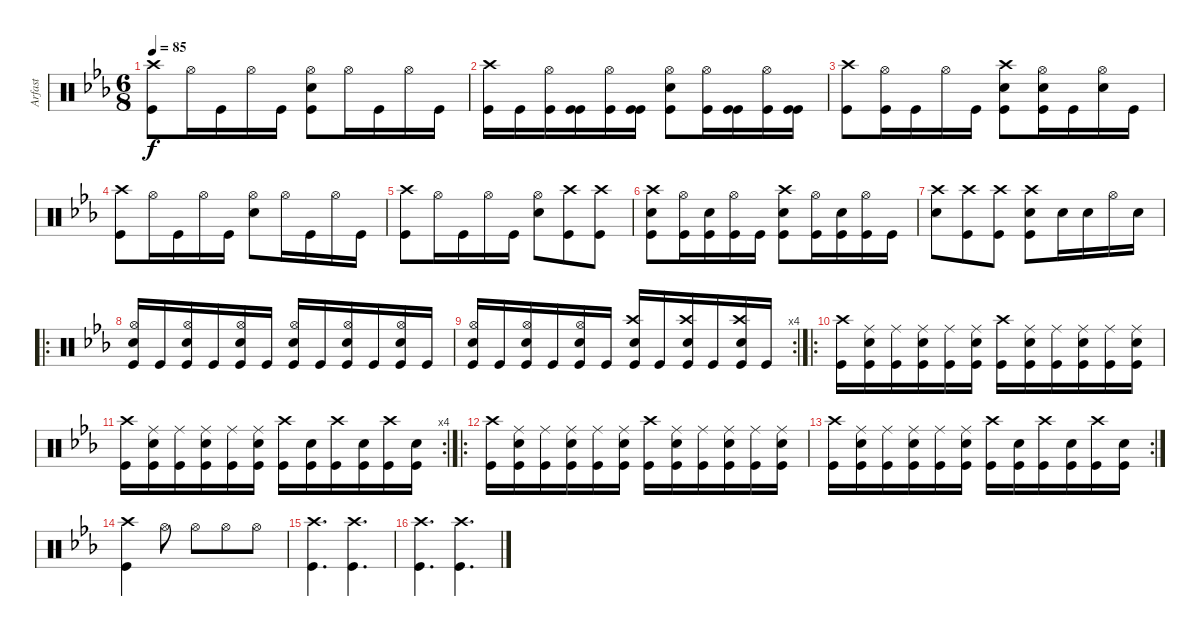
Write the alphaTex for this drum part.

\track ("Arfast" "Arfast") {instrument percussion}
\staff {score}
\articulation defaults
\ts (6 8)
\tempo 85
\clef neutral
\ks cminor
("Kick (hit)" "Crash high (hit)").8{dy f} "Hi-Hat (open)".16 "Kick (hit)".16 "Hi-Hat (open)".16 "Kick (hit)".16 ("Snare (hit) 2" "Kick (hit)" "Hi-Hat (open)").8 "Hi-Hat (open)".16 "Kick (hit)".16 "Hi-Hat (open)".16 "Kick (hit)".16 |
("Kick (hit)" "Crash high (hit)").16 "Kick (hit)".16 ("Hi-Hat (open)" "Kick (hit)").16 ("Kick (hit)" "Kick (hit)").16 ("Hi-Hat (open)" "Kick (hit)").16 ("Kick (hit)" "Kick (hit)").16 ("Snare (hit) 2" "Hi-Hat (open)" "Kick (hit)").8 ("Hi-Hat (open)" "Kick (hit)").16 ("Kick (hit)" "Kick (hit)").16 ("Hi-Hat (open)" "Kick (hit)").16 ("Kick (hit)" "Kick (hit)").16 |
("Kick (hit)" "Crash high (hit)").8 ("Kick (hit)" "Hi-Hat (open)").16 "Kick (hit)".16 "Hi-Hat (open)".16 "Kick (hit)".16 ("Kick (hit)" "Crash high (hit)" "Snare (hit) 2").8 ("Kick (hit)" "Hi-Hat (open)" "Snare (hit) 2").16 "Kick (hit)".16 ("Hi-Hat (open)" "Snare (hit) 2").16 "Kick (hit)".16 |
("Kick (hit)" "Crash high (hit)").8 "Hi-Hat (open)".16 "Kick (hit)".16 "Hi-Hat (open)".16 "Kick (hit)".16 ("Snare (hit) 2" "Hi-Hat (open)").8 "Hi-Hat (open)".16 "Kick (hit)".16 "Hi-Hat (open)".16 "Kick (hit)".16 |
("Kick (hit)" "Crash high (hit)").8 "Hi-Hat (open)".16 "Kick (hit)".16 "Hi-Hat (open)".16 "Kick (hit)".16 ("Snare (hit) 2" "Hi-Hat (open)").8 ("Crash high (hit)" "Kick (hit)").8 ("Crash high (hit)" "Kick (hit)").8 |
("Kick (hit)" "Crash high (hit)" "Snare (hit) 2").8 ("Hi-Hat (open)" "Kick (hit)").16 ("Kick (hit)" "Snare (hit) 2").16 ("Hi-Hat (open)" "Kick (hit)").16 "Kick (hit)".16 ("Kick (hit)" "Crash high (hit)" "Snare (hit) 2").8 ("Hi-Hat (open)" "Kick (hit)").16 ("Kick (hit)" "Snare (hit) 2").16 ("Hi-Hat (open)" "Kick (hit)").16 "Kick (hit)".16 |
("Crash high (hit)" "Snare (hit) 2").8 ("Crash high (hit)" "Kick (hit)").8 ("Crash high (hit)" "Kick (hit)").8 ("Crash high (hit)" "Kick (hit)" "Snare (hit) 2").8 "Snare (hit) 2".16 "Snare (hit) 2".16 "Hi-Hat (open)".16 "Snare (hit) 2".16 |
\ro
("Snare (hit) 2" "Hi-Hat (open)" "Kick (hit)").16 "Kick (hit)".16 ("Snare (hit) 2" "Hi-Hat (open)" "Kick (hit)").16 "Kick (hit)".16 ("Snare (hit) 2" "Hi-Hat (open)" "Kick (hit)").16 "Kick (hit)".16 ("Snare (hit) 2" "Hi-Hat (open)" "Kick (hit)").16 "Kick (hit)".16 ("Snare (hit) 2" "Hi-Hat (open)" "Kick (hit)").16 "Kick (hit)".16 ("Snare (hit) 2" "Hi-Hat (open)" "Kick (hit)").16 "Kick (hit)".16 |
\rc 4
("Snare (hit) 2" "Hi-Hat (open)" "Kick (hit)").16 "Kick (hit)".16 ("Snare (hit) 2" "Hi-Hat (open)" "Kick (hit)").16 "Kick (hit)".16 ("Snare (hit) 2" "Hi-Hat (open)" "Kick (hit)").16 "Kick (hit)".16 ("Crash high (hit)" "Snare (hit) 2" "Kick (hit)").16 "Kick (hit)".16 ("Crash high (hit)" "Snare (hit) 2" "Kick (hit)").16 "Kick (hit)".16 ("Crash high (hit)" "Snare (hit) 2" "Kick (hit)").16 "Kick (hit)".16 |
\ro
("Crash high (hit)" "Kick (hit)").16 ("Ride (middle)" "Snare (hit) 2" "Kick (hit)").16 ("Ride (middle)" "Kick (hit)").16 ("Ride (middle)" "Snare (hit) 2" "Kick (hit)").16 ("Ride (middle)" "Kick (hit)").16 ("Ride (middle)" "Snare (hit) 2" "Kick (hit)").16 ("Crash high (hit)" "Kick (hit)").16 ("Ride (middle)" "Snare (hit) 2" "Kick (hit)").16 ("Ride (middle)" "Kick (hit)").16 ("Ride (middle)" "Snare (hit) 2" "Kick (hit)").16 ("Ride (middle)" "Kick (hit)").16 ("Ride (middle)" "Snare (hit) 2" "Kick (hit)").16 |
\rc 4
("Crash high (hit)" "Kick (hit)").16 ("Ride (middle)" "Snare (hit) 2" "Kick (hit)").16 ("Ride (middle)" "Kick (hit)").16 ("Ride (middle)" "Snare (hit) 2" "Kick (hit)").16 ("Ride (middle)" "Kick (hit)").16 ("Ride (middle)" "Snare (hit) 2" "Kick (hit)").16 ("Crash high (hit)" "Kick (hit)").16 ("Snare (hit) 2" "Kick (hit)").16 ("Crash high (hit)" "Kick (hit)").16 ("Snare (hit) 2" "Kick (hit)").16 ("Crash high (hit)" "Kick (hit)").16 ("Snare (hit) 2" "Kick (hit)").16 |
\ro
("Crash high (hit)" "Kick (hit)").16 ("Ride (middle)" "Snare (hit) 2" "Kick (hit)").16 ("Ride (middle)" "Kick (hit)").16 ("Ride (middle)" "Snare (hit) 2" "Kick (hit)").16 ("Ride (middle)" "Kick (hit)").16 ("Ride (middle)" "Snare (hit) 2" "Kick (hit)").16 ("Crash high (hit)" "Kick (hit)").16 ("Ride (middle)" "Snare (hit) 2" "Kick (hit)").16 ("Ride (middle)" "Kick (hit)").16 ("Ride (middle)" "Snare (hit) 2" "Kick (hit)").16 ("Ride (middle)" "Kick (hit)").16 ("Ride (middle)" "Snare (hit) 2" "Kick (hit)").16 |
\rc 2
("Crash high (hit)" "Kick (hit)").16 ("Ride (middle)" "Snare (hit) 2" "Kick (hit)").16 ("Ride (middle)" "Kick (hit)").16 ("Ride (middle)" "Snare (hit) 2" "Kick (hit)").16 ("Ride (middle)" "Kick (hit)").16 ("Ride (middle)" "Snare (hit) 2" "Kick (hit)").16 ("Crash high (hit)" "Kick (hit)").16 ("Snare (hit) 2" "Kick (hit)").16 ("Crash high (hit)" "Kick (hit)").16 ("Snare (hit) 2" "Kick (hit)").16 ("Crash high (hit)" "Kick (hit)").16 ("Snare (hit) 2" "Kick (hit)").16 |
("Crash high (hit)" "Kick (hit)").4 "Hi-Hat (open)".8 "Hi-Hat (open)".8 "Hi-Hat (open)".8 "Hi-Hat (open)".8 |
("Crash high (hit)" "Kick (hit)").4{d} ("Crash high (hit)" "Kick (hit)").4{d} |
("Crash high (hit)" "Kick (hit)").4{d} ("Crash high (hit)" "Kick (hit)").4{d}
